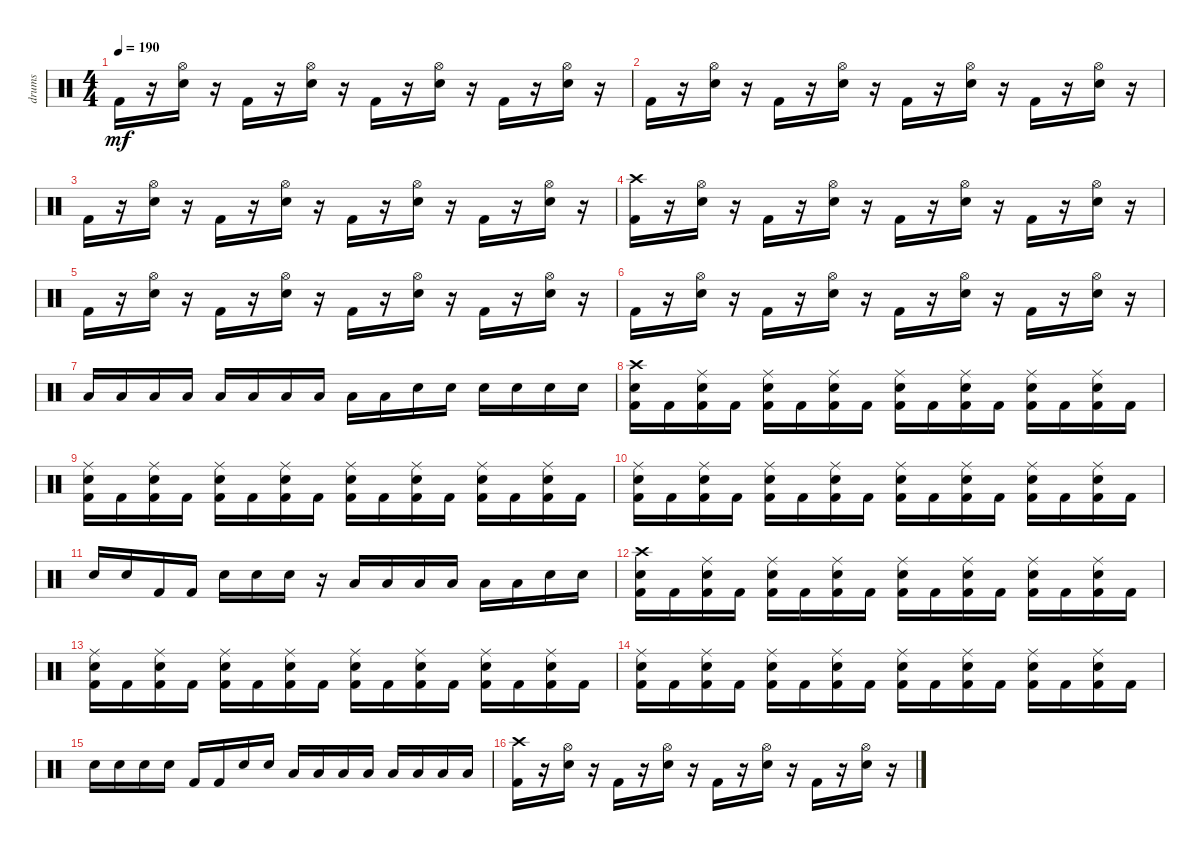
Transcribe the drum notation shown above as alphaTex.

\track ("drums               " "drums     ") {instrument percussion}
\staff {score}
\articulation defaults
\ts (4 4)
\tempo 190
\clef neutral
\ks c "Kick (hit) 2".16{dy mf}
r.16 ("Snare (hit) 2" "Hi-Hat (open)").16 r.16 "Kick (hit) 2".16 r.16 ("Snare (hit) 2" "Hi-Hat (open)").16 r.16 "Kick (hit) 2".16 r.16 ("Snare (hit) 2" "Hi-Hat (open)").16 r.16 "Kick (hit) 2".16 r.16 ("Snare (hit) 2" "Hi-Hat (open)").16 r.16 |
"Kick (hit) 2".16 r.16 ("Snare (hit) 2" "Hi-Hat (open)").16 r.16 "Kick (hit) 2".16 r.16 ("Snare (hit) 2" "Hi-Hat (open)").16 r.16 "Kick (hit) 2".16 r.16 ("Snare (hit) 2" "Hi-Hat (open)").16 r.16 "Kick (hit) 2".16 r.16 ("Snare (hit) 2" "Hi-Hat (open)").16 r.16 |
"Kick (hit) 2".16 r.16 ("Snare (hit) 2" "Hi-Hat (open)").16 r.16 "Kick (hit) 2".16 r.16 ("Snare (hit) 2" "Hi-Hat (open)").16 r.16 "Kick (hit) 2".16 r.16 ("Snare (hit) 2" "Hi-Hat (open)").16 r.16 "Kick (hit) 2".16 r.16 ("Snare (hit) 2" "Hi-Hat (open)").16 r.16 |
("Kick (hit) 2" "Crash high (hit)").16 r.16 ("Snare (hit) 2" "Hi-Hat (open)").16 r.16 "Kick (hit) 2".16 r.16 ("Snare (hit) 2" "Hi-Hat (open)").16 r.16 "Kick (hit) 2".16 r.16 ("Snare (hit) 2" "Hi-Hat (open)").16 r.16 "Kick (hit) 2".16 r.16 ("Snare (hit) 2" "Hi-Hat (open)").16 r.16 |
"Kick (hit) 2".16 r.16 ("Snare (hit) 2" "Hi-Hat (open)").16 r.16 "Kick (hit) 2".16 r.16 ("Snare (hit) 2" "Hi-Hat (open)").16 r.16 "Kick (hit) 2".16 r.16 ("Snare (hit) 2" "Hi-Hat (open)").16 r.16 "Kick (hit) 2".16 r.16 ("Snare (hit) 2" "Hi-Hat (open)").16 r.16 |
"Kick (hit) 2".16 r.16 ("Snare (hit) 2" "Hi-Hat (open)").16 r.16 "Kick (hit) 2".16 r.16 ("Snare (hit) 2" "Hi-Hat (open)").16 r.16 "Kick (hit) 2".16 r.16 ("Snare (hit) 2" "Hi-Hat (open)").16 r.16 "Kick (hit) 2".16 r.16 ("Snare (hit) 2" "Hi-Hat (open)").16 r.16 |
"Low Tom (hit)".16 "Low Tom (hit)".16 "Low Tom (hit)".16 "Low Floor Tom (hit)".16 "Low Floor Tom (hit)".16 "Low Floor Tom (hit)".16 "Low Tom (hit)".16 "Low Tom (hit)".16 "Low Tom (hit)".16 "Low Tom (hit)".16 "Snare (hit) 2".16 "Snare (hit) 2".16 "Snare (hit) 2".16 "Snare (hit) 2".16 "Snare (hit) 2".16 "Snare (hit) 2".16 |
("Kick (hit) 2" "Snare (hit) 2" "Crash high (hit)").16 "Kick (hit) 2".16 ("Kick (hit) 2" "Ride (middle)" "Snare (hit) 2").16 "Kick (hit) 2".16 ("Kick (hit) 2" "Snare (hit) 2" "Ride (middle)").16 "Kick (hit) 2".16 ("Kick (hit) 2" "Ride (middle)" "Snare (hit) 2").16 "Kick (hit) 2".16 ("Kick (hit) 2" "Snare (hit) 2" "Ride (middle)").16 "Kick (hit) 2".16 ("Kick (hit) 2" "Ride (middle)" "Snare (hit) 2").16 "Kick (hit) 2".16 ("Kick (hit) 2" "Snare (hit) 2" "Ride (middle)").16 "Kick (hit) 2".16 ("Kick (hit) 2" "Ride (middle)" "Snare (hit) 2").16 "Kick (hit) 2".16 |
("Kick (hit) 2" "Snare (hit) 2" "Ride (middle)").16 "Kick (hit) 2".16 ("Kick (hit) 2" "Ride (middle)" "Snare (hit) 2").16 "Kick (hit) 2".16 ("Kick (hit) 2" "Snare (hit) 2" "Ride (middle)").16 "Kick (hit) 2".16 ("Kick (hit) 2" "Ride (middle)" "Snare (hit) 2").16 "Kick (hit) 2".16 ("Kick (hit) 2" "Snare (hit) 2" "Ride (middle)").16 "Kick (hit) 2".16 ("Kick (hit) 2" "Ride (middle)" "Snare (hit) 2").16 "Kick (hit) 2".16 ("Kick (hit) 2" "Snare (hit) 2" "Ride (middle)").16 "Kick (hit) 2".16 ("Kick (hit) 2" "Ride (middle)" "Snare (hit) 2").16 "Kick (hit) 2".16 |
("Kick (hit) 2" "Snare (hit) 2" "Ride (middle)").16 "Kick (hit) 2".16 ("Kick (hit) 2" "Ride (middle)" "Snare (hit) 2").16 "Kick (hit) 2".16 ("Kick (hit) 2" "Snare (hit) 2" "Ride (middle)").16 "Kick (hit) 2".16 ("Kick (hit) 2" "Ride (middle)" "Snare (hit) 2").16 "Kick (hit) 2".16 ("Kick (hit) 2" "Snare (hit) 2" "Ride (middle)").16 "Kick (hit) 2".16 ("Kick (hit) 2" "Ride (middle)" "Snare (hit) 2").16 "Kick (hit) 2".16 ("Kick (hit) 2" "Snare (hit) 2" "Ride (middle)").16 "Kick (hit) 2".16 ("Kick (hit) 2" "Ride (middle)" "Snare (hit) 2").16 "Kick (hit) 2".16 |
"Snare (hit) 2".16 "Snare (hit) 2".16 "Kick (hit) 2".16 "Kick (hit) 2".16 "Snare (hit) 2".16 "Snare (hit) 2".16 "Snare (hit) 2".16 r.16 "Low Floor Tom (hit)".16 "Low Floor Tom (hit)".16 "Low Floor Tom (hit)".16 "Low Tom (hit)".16 "Low Tom (hit)".16 "Low Tom (hit)".16 "Snare (hit) 2".16 "Snare (hit) 2".16 |
("Kick (hit) 2" "Snare (hit) 2" "Crash high (hit)").16 "Kick (hit) 2".16 ("Kick (hit) 2" "Ride (middle)" "Snare (hit) 2").16 "Kick (hit) 2".16 ("Kick (hit) 2" "Snare (hit) 2" "Ride (middle)").16 "Kick (hit) 2".16 ("Kick (hit) 2" "Ride (middle)" "Snare (hit) 2").16 "Kick (hit) 2".16 ("Kick (hit) 2" "Snare (hit) 2" "Ride (middle)").16 "Kick (hit) 2".16 ("Kick (hit) 2" "Ride (middle)" "Snare (hit) 2").16 "Kick (hit) 2".16 ("Kick (hit) 2" "Snare (hit) 2" "Ride (middle)").16 "Kick (hit) 2".16 ("Kick (hit) 2" "Ride (middle)" "Snare (hit) 2").16 "Kick (hit) 2".16 |
("Kick (hit) 2" "Snare (hit) 2" "Ride (middle)").16 "Kick (hit) 2".16 ("Kick (hit) 2" "Ride (middle)" "Snare (hit) 2").16 "Kick (hit) 2".16 ("Kick (hit) 2" "Snare (hit) 2" "Ride (middle)").16 "Kick (hit) 2".16 ("Kick (hit) 2" "Ride (middle)" "Snare (hit) 2").16 "Kick (hit) 2".16 ("Kick (hit) 2" "Snare (hit) 2" "Ride (middle)").16 "Kick (hit) 2".16 ("Kick (hit) 2" "Ride (middle)" "Snare (hit) 2").16 "Kick (hit) 2".16 ("Kick (hit) 2" "Snare (hit) 2" "Ride (middle)").16 "Kick (hit) 2".16 ("Kick (hit) 2" "Ride (middle)" "Snare (hit) 2").16 "Kick (hit) 2".16 |
("Kick (hit) 2" "Snare (hit) 2" "Ride (middle)").16 "Kick (hit) 2".16 ("Kick (hit) 2" "Ride (middle)" "Snare (hit) 2").16 "Kick (hit) 2".16 ("Kick (hit) 2" "Snare (hit) 2" "Ride (middle)").16 "Kick (hit) 2".16 ("Kick (hit) 2" "Ride (middle)" "Snare (hit) 2").16 "Kick (hit) 2".16 ("Kick (hit) 2" "Snare (hit) 2" "Ride (middle)").16 "Kick (hit) 2".16 ("Kick (hit) 2" "Ride (middle)" "Snare (hit) 2").16 "Kick (hit) 2".16 ("Kick (hit) 2" "Snare (hit) 2" "Ride (middle)").16 "Kick (hit) 2".16 ("Kick (hit) 2" "Ride (middle)" "Snare (hit) 2").16 "Kick (hit) 2".16 |
"Snare (hit) 2".16 "Snare (hit) 2".16 "Snare (hit) 2".16 "Snare (hit) 2".16 "Kick (hit) 2".16 "Kick (hit) 2".16 "Snare (hit) 2".16 "Snare (hit) 2".16 "Low Tom (hit)".16 "Low Tom (hit)".16 "Low Tom (hit)".16 "Low Tom (hit)".16 "Low Floor Tom (hit)".16 "Low Floor Tom (hit)".16 "Low Floor Tom (hit)".16 "Low Floor Tom (hit)".16 |
("Kick (hit) 2" "Crash high (hit)").16 r.16 ("Snare (hit) 2" "Hi-Hat (open)").16 r.16 "Kick (hit) 2".16 r.16 ("Snare (hit) 2" "Hi-Hat (open)").16 r.16 "Kick (hit) 2".16 r.16 ("Snare (hit) 2" "Hi-Hat (open)").16 r.16 "Kick (hit) 2".16 r.16 ("Snare (hit) 2" "Hi-Hat (open)").16 r.16
